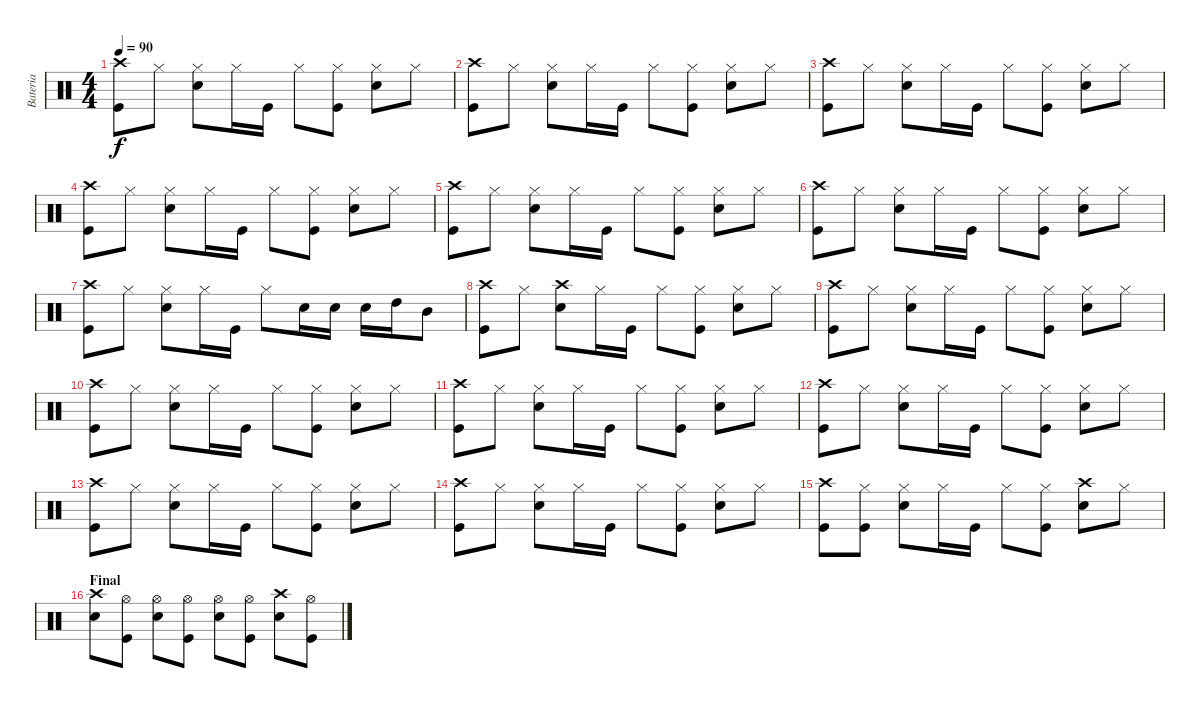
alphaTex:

\track ("Bateria" "Bateria") {instrument percussion}
\staff {score}
\articulation defaults
\ts (4 4)
\tempo 90
\clef neutral
\ks c
("Crash high (hit)" "Kick (hit)").8{dy f} "Hi-Hat (closed)".8 ("Hi-Hat (closed)" "Snare (hit) 2").8 "Hi-Hat (closed)".16 "Kick (hit)".16 "Hi-Hat (closed)".8 ("Hi-Hat (closed)" "Kick (hit)").8 ("Hi-Hat (closed)" "Snare (hit) 2").8 "Hi-Hat (closed)".8 |
("Crash high (hit)" "Kick (hit)").8 "Hi-Hat (closed)".8 ("Hi-Hat (closed)" "Snare (hit) 2").8 "Hi-Hat (closed)".16 "Kick (hit)".16 "Hi-Hat (closed)".8 ("Hi-Hat (closed)" "Kick (hit)").8 ("Hi-Hat (closed)" "Snare (hit) 2").8 "Hi-Hat (closed)".8 |
("Crash high (hit)" "Kick (hit)").8 "Hi-Hat (closed)".8 ("Hi-Hat (closed)" "Snare (hit) 2").8 "Hi-Hat (closed)".16 "Kick (hit)".16 "Hi-Hat (closed)".8 ("Hi-Hat (closed)" "Kick (hit)").8 ("Hi-Hat (closed)" "Snare (hit) 2").8 "Hi-Hat (closed)".8 |
("Crash high (hit)" "Kick (hit)").8 "Hi-Hat (closed)".8 ("Hi-Hat (closed)" "Snare (hit) 2").8 "Hi-Hat (closed)".16 "Kick (hit)".16 "Hi-Hat (closed)".8 ("Hi-Hat (closed)" "Kick (hit)").8 ("Hi-Hat (closed)" "Snare (hit) 2").8 "Hi-Hat (closed)".8 |
("Crash high (hit)" "Kick (hit)").8 "Hi-Hat (closed)".8 ("Hi-Hat (closed)" "Snare (hit) 2").8 "Hi-Hat (closed)".16 "Kick (hit)".16 "Hi-Hat (closed)".8 ("Hi-Hat (closed)" "Kick (hit)").8 ("Hi-Hat (closed)" "Snare (hit) 2").8 "Hi-Hat (closed)".8 |
("Crash high (hit)" "Kick (hit)").8 "Hi-Hat (closed)".8 ("Hi-Hat (closed)" "Snare (hit) 2").8 "Hi-Hat (closed)".16 "Kick (hit)".16 "Hi-Hat (closed)".8 ("Hi-Hat (closed)" "Kick (hit)").8 ("Hi-Hat (closed)" "Snare (hit) 2").8 "Hi-Hat (closed)".8 |
("Crash high (hit)" "Kick (hit)").8 "Hi-Hat (closed)".8 ("Hi-Hat (closed)" "Snare (hit) 2").8 "Hi-Hat (closed)".16 "Kick (hit)".16 "Hi-Hat (closed)".8 "Snare (hit) 2".16 "Snare (hit) 2".16 "Snare (hit) 2".16 "High Tom (hit)".16 "Mid Tom (hit)".8 |
("Crash high (hit)" "Kick (hit)").8 "Hi-Hat (closed)".8 ("Crash high (hit)" "Snare (hit) 2").8 "Hi-Hat (closed)".16 "Kick (hit)".16 "Hi-Hat (closed)".8 ("Hi-Hat (closed)" "Kick (hit)").8 ("Hi-Hat (closed)" "Snare (hit) 2").8 "Hi-Hat (closed)".8 |
("Crash high (hit)" "Kick (hit)").8 "Hi-Hat (closed)".8 ("Hi-Hat (closed)" "Snare (hit) 2").8 "Hi-Hat (closed)".16 "Kick (hit)".16 "Hi-Hat (closed)".8 ("Hi-Hat (closed)" "Kick (hit)").8 ("Hi-Hat (closed)" "Snare (hit) 2").8 "Hi-Hat (closed)".8 |
("Crash high (hit)" "Kick (hit)").8 "Hi-Hat (closed)".8 ("Hi-Hat (closed)" "Snare (hit) 2").8 "Hi-Hat (closed)".16 "Kick (hit)".16 "Hi-Hat (closed)".8 ("Hi-Hat (closed)" "Kick (hit)").8 ("Hi-Hat (closed)" "Snare (hit) 2").8 "Hi-Hat (closed)".8 |
("Crash high (hit)" "Kick (hit)").8 "Hi-Hat (closed)".8 ("Hi-Hat (closed)" "Snare (hit) 2").8 "Hi-Hat (closed)".16 "Kick (hit)".16 "Hi-Hat (closed)".8 ("Hi-Hat (closed)" "Kick (hit)").8 ("Hi-Hat (closed)" "Snare (hit) 2").8 "Hi-Hat (closed)".8 |
("Crash high (hit)" "Kick (hit)").8 "Hi-Hat (closed)".8 ("Hi-Hat (closed)" "Snare (hit) 2").8 "Hi-Hat (closed)".16 "Kick (hit)".16 "Hi-Hat (closed)".8 ("Hi-Hat (closed)" "Kick (hit)").8 ("Hi-Hat (closed)" "Snare (hit) 2").8 "Hi-Hat (closed)".8 |
("Crash high (hit)" "Kick (hit)").8 "Hi-Hat (closed)".8 ("Hi-Hat (closed)" "Snare (hit) 2").8 "Hi-Hat (closed)".16 "Kick (hit)".16 "Hi-Hat (closed)".8 ("Hi-Hat (closed)" "Kick (hit)").8 ("Hi-Hat (closed)" "Snare (hit) 2").8 "Hi-Hat (closed)".8 |
("Crash high (hit)" "Kick (hit)").8 "Hi-Hat (closed)".8 ("Hi-Hat (closed)" "Snare (hit) 2").8 "Hi-Hat (closed)".16 "Kick (hit)".16 "Hi-Hat (closed)".8 ("Hi-Hat (closed)" "Kick (hit)").8 ("Hi-Hat (closed)" "Snare (hit) 2").8 "Hi-Hat (closed)".8 |
("Crash high (hit)" "Kick (hit)").8 ("Hi-Hat (closed)" "Kick (hit)").8 ("Hi-Hat (closed)" "Snare (hit) 2").8 "Hi-Hat (closed)".16 "Kick (hit)".16 "Hi-Hat (closed)".8 ("Hi-Hat (closed)" "Kick (hit)").8 ("Crash high (hit)" "Snare (hit) 2").8 "Hi-Hat (closed)".8 |
\section ("" "Final")
("Crash high (hit)" "Snare (hit) 2").8 ("Hi-Hat (open)" "Kick (hit)").8 ("Hi-Hat (open)" "Snare (hit) 2").8 ("Hi-Hat (open)" "Kick (hit)").8 ("Hi-Hat (open)" "Snare (hit) 2").8 ("Hi-Hat (open)" "Kick (hit)").8 ("Crash high (hit)" "Snare (hit) 2").8 ("Hi-Hat (open)" "Kick (hit)").8
